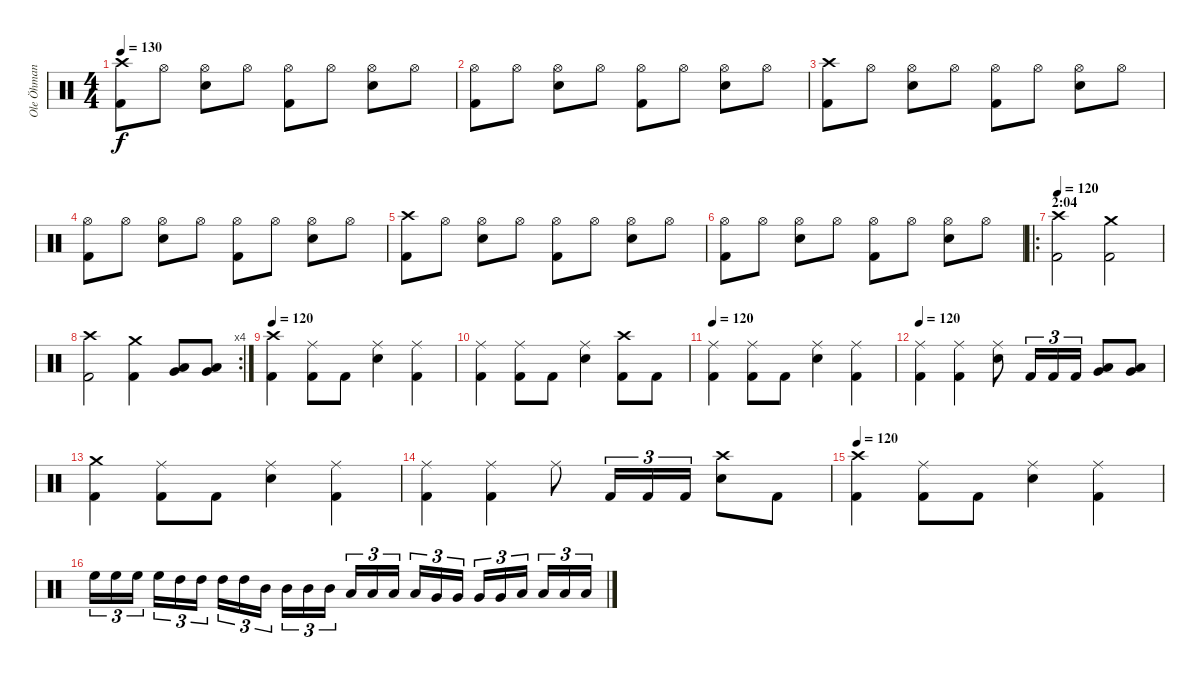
\track ("Ole Öhman" "Ole Öhman") {instrument percussion}
\staff {score}
\articulation defaults
\ts (4 4)
\tempo 130
\clef neutral
\ks c
("Crash high (hit)" "Kick (hit) 2").8{dy f} "Hi-Hat (open)".8 ("Hi-Hat (open)" "Electric Snare (hit)").8 "Hi-Hat (open)".8 ("Hi-Hat (open)" "Kick (hit) 2").8 "Hi-Hat (open)".8 ("Hi-Hat (open)" "Electric Snare (hit)").8 "Hi-Hat (open)".8 |
("Hi-Hat (open)" "Kick (hit) 2").8 "Hi-Hat (open)".8 ("Hi-Hat (open)" "Electric Snare (hit)").8 "Hi-Hat (open)".8 ("Hi-Hat (open)" "Kick (hit) 2").8 "Hi-Hat (open)".8 ("Hi-Hat (open)" "Electric Snare (hit)").8 "Hi-Hat (open)".8 |
("Crash high (hit)" "Kick (hit) 2").8 "Hi-Hat (open)".8 ("Hi-Hat (open)" "Electric Snare (hit)").8 "Hi-Hat (open)".8 ("Hi-Hat (open)" "Kick (hit) 2").8 "Hi-Hat (open)".8 ("Hi-Hat (open)" "Electric Snare (hit)").8 "Hi-Hat (open)".8 |
("Hi-Hat (open)" "Kick (hit) 2").8 "Hi-Hat (open)".8 ("Hi-Hat (open)" "Electric Snare (hit)").8 "Hi-Hat (open)".8 ("Hi-Hat (open)" "Kick (hit) 2").8 "Hi-Hat (open)".8 ("Hi-Hat (open)" "Electric Snare (hit)").8 "Hi-Hat (open)".8 |
("Crash high (hit)" "Kick (hit) 2").8 "Hi-Hat (open)".8 ("Hi-Hat (open)" "Electric Snare (hit)").8 "Hi-Hat (open)".8 ("Hi-Hat (open)" "Kick (hit) 2").8 "Hi-Hat (open)".8 ("Hi-Hat (open)" "Electric Snare (hit)").8 "Hi-Hat (open)".8 |
("Hi-Hat (open)" "Kick (hit) 2").8 "Hi-Hat (open)".8 ("Hi-Hat (open)" "Electric Snare (hit)").8 "Hi-Hat (open)".8 ("Hi-Hat (open)" "Kick (hit) 2").8 "Hi-Hat (open)".8 ("Hi-Hat (open)" "Electric Snare (hit)").8 "Hi-Hat (open)".8 |
\ro
\section ("" "2:04")
\tempo 120
("Crash high (hit)" "Kick (hit) 2").2 ("Crash medium (hit)" "Kick (hit) 2").2 |
\rc 4
("Crash high (hit)" "Kick (hit) 2").2 ("Crash medium (hit)" "Kick (hit) 2").4 ("Low Tom (hit)" "Very Low Tom (hit)").8 ("Very Low Tom (hit)" "Low Floor Tom (hit)").8 |
\tempo 120
("Crash high (hit)" "Kick (hit) 2").4 ("Ride (middle)" "Kick (hit) 2").8 "Kick (hit) 2".8 ("Ride (middle)" "Electric Snare (hit)").4 ("Ride (middle)" "Kick (hit) 2").4 |
("Ride (middle)" "Kick (hit) 2").4 ("Ride (middle)" "Kick (hit) 2").8 "Kick (hit) 2".8 ("Ride (middle)" "Electric Snare (hit)").4 ("Crash high (hit)" "Kick (hit) 2").8 "Kick (hit) 2".8 |
\tempo 120
("Ride (middle)" "Kick (hit) 2").4 ("Ride (middle)" "Kick (hit) 2").8 "Kick (hit) 2".8 ("Ride (middle)" "Electric Snare (hit)").4 ("Ride (middle)" "Kick (hit) 2").4 |
\tempo 120
("Ride (middle)" "Kick (hit) 2").4 ("Ride (middle)" "Kick (hit) 2").4 ("Ride (middle)" "Electric Snare (hit)").8 "Kick (hit) 2".16{tu (3 2)} "Kick (hit) 2".16{tu (3 2)} "Kick (hit) 2".16{tu (3 2)} ("Low Tom (hit)" "Very Low Tom (hit)").8 ("Very Low Tom (hit)" "Low Floor Tom (hit)").8 |
("Crash medium (hit)" "Kick (hit) 2").4 ("Ride (middle)" "Kick (hit) 2").8 "Kick (hit) 2".8 ("Ride (middle)" "Electric Snare (hit)").4 ("Ride (middle)" "Kick (hit) 2").4 |
("Ride (middle)" "Kick (hit) 2").4 ("Ride (middle)" "Kick (hit) 2").4 "Ride (middle)".8 "Kick (hit) 2".16{tu (3 2)} "Kick (hit) 2".16{tu (3 2)} "Kick (hit) 2".16{tu (3 2)} ("Crash high (hit)" "Electric Snare (hit)").8 "Kick (hit) 2".8 |
\tempo 120
("Crash high (hit)" "Kick (hit) 2").4 ("Ride (middle)" "Kick (hit) 2").8 "Kick (hit) 2".8 ("Ride (middle)" "Electric Snare (hit)").4 ("Ride (middle)" "Kick (hit) 2").4 |
"High Floor Tom (hit)".16{tu (3 2)} "High Floor Tom (hit)".16{tu (3 2)} "High Floor Tom (hit)".16{tu (3 2)} "High Floor Tom (hit)".16{tu (3 2)} "High Tom (hit)".16{tu (3 2)} "High Tom (hit)".16{tu (3 2)} "High Tom (hit)".16{tu (3 2)} "High Tom (hit)".16{tu (3 2)} "Mid Tom (hit)".16{tu (3 2)} "Mid Tom (hit)".16{tu (3 2)} "Mid Tom (hit)".16{tu (3 2)} "Mid Tom (hit)".16{tu (3 2)} "Low Tom (hit)".16{tu (3 2)} "Low Tom (hit)".16{tu (3 2)} "Low Tom (hit)".16{tu (3 2)} "Low Tom (hit)".16{tu (3 2)} "Very Low Tom (hit)".16{tu (3 2)} "Very Low Tom (hit)".16{tu (3 2)} "Very Low Tom (hit)".16{tu (3 2)} "Very Low Tom (hit)".16{tu (3 2)} "Low Floor Tom (hit)".16{tu (3 2)} "Low Floor Tom (hit)".16{tu (3 2)} "Low Floor Tom (hit)".16{tu (3 2)} "Low Floor Tom (hit)".16{tu (3 2)}
